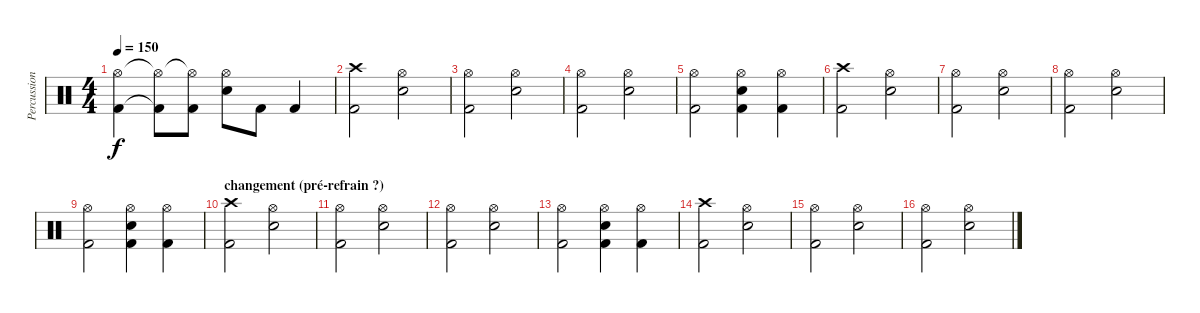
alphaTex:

\track ("Percussions" "Percussion") {instrument percussion}
\staff {score}
\articulation defaults
\ts (4 4)
\tempo 150
\clef neutral
\ks c
("Hi-Hat (open)" "Kick (hit) 2").4{dy f} ("Hi-Hat (open)"{t} "Kick (hit) 2"{t}).8 ("Hi-Hat (open)"{t} "Kick (hit) 2").8 ("Hi-Hat (open)" "Snare (hit) 2").8 "Kick (hit) 2".8 "Kick (hit) 2".4 |
("Crash high (hit)" "Kick (hit) 2").2 ("Hi-Hat (open)" "Snare (hit) 2").2 |
("Hi-Hat (open)" "Kick (hit) 2").2 ("Hi-Hat (open)" "Snare (hit) 2").2 |
("Hi-Hat (open)" "Kick (hit) 2").2 ("Hi-Hat (open)" "Snare (hit) 2").2 |
("Hi-Hat (open)" "Kick (hit) 2").2 ("Hi-Hat (open)" "Snare (hit) 2" "Kick (hit) 2").4 ("Hi-Hat (open)" "Kick (hit) 2").4 |
("Crash high (hit)" "Kick (hit) 2").2 ("Hi-Hat (open)" "Snare (hit) 2").2 |
("Hi-Hat (open)" "Kick (hit) 2").2 ("Hi-Hat (open)" "Snare (hit) 2").2 |
("Hi-Hat (open)" "Kick (hit) 2").2 ("Hi-Hat (open)" "Snare (hit) 2").2 |
("Hi-Hat (open)" "Kick (hit) 2").2 ("Hi-Hat (open)" "Snare (hit) 2" "Kick (hit) 2").4 ("Hi-Hat (open)" "Kick (hit) 2").4 |
\section ("" "changement (pré-refrain ?)")
("Crash high (hit)" "Kick (hit) 2").2 ("Hi-Hat (open)" "Snare (hit) 2").2 |
("Hi-Hat (open)" "Kick (hit) 2").2 ("Hi-Hat (open)" "Snare (hit) 2").2 |
("Hi-Hat (open)" "Kick (hit) 2").2 ("Hi-Hat (open)" "Snare (hit) 2").2 |
("Hi-Hat (open)" "Kick (hit) 2").2 ("Hi-Hat (open)" "Snare (hit) 2" "Kick (hit) 2").4 ("Hi-Hat (open)" "Kick (hit) 2").4 |
("Crash high (hit)" "Kick (hit) 2").2 ("Hi-Hat (open)" "Snare (hit) 2").2 |
("Hi-Hat (open)" "Kick (hit) 2").2 ("Hi-Hat (open)" "Snare (hit) 2").2 |
("Hi-Hat (open)" "Kick (hit) 2").2 ("Hi-Hat (open)" "Snare (hit) 2").2
